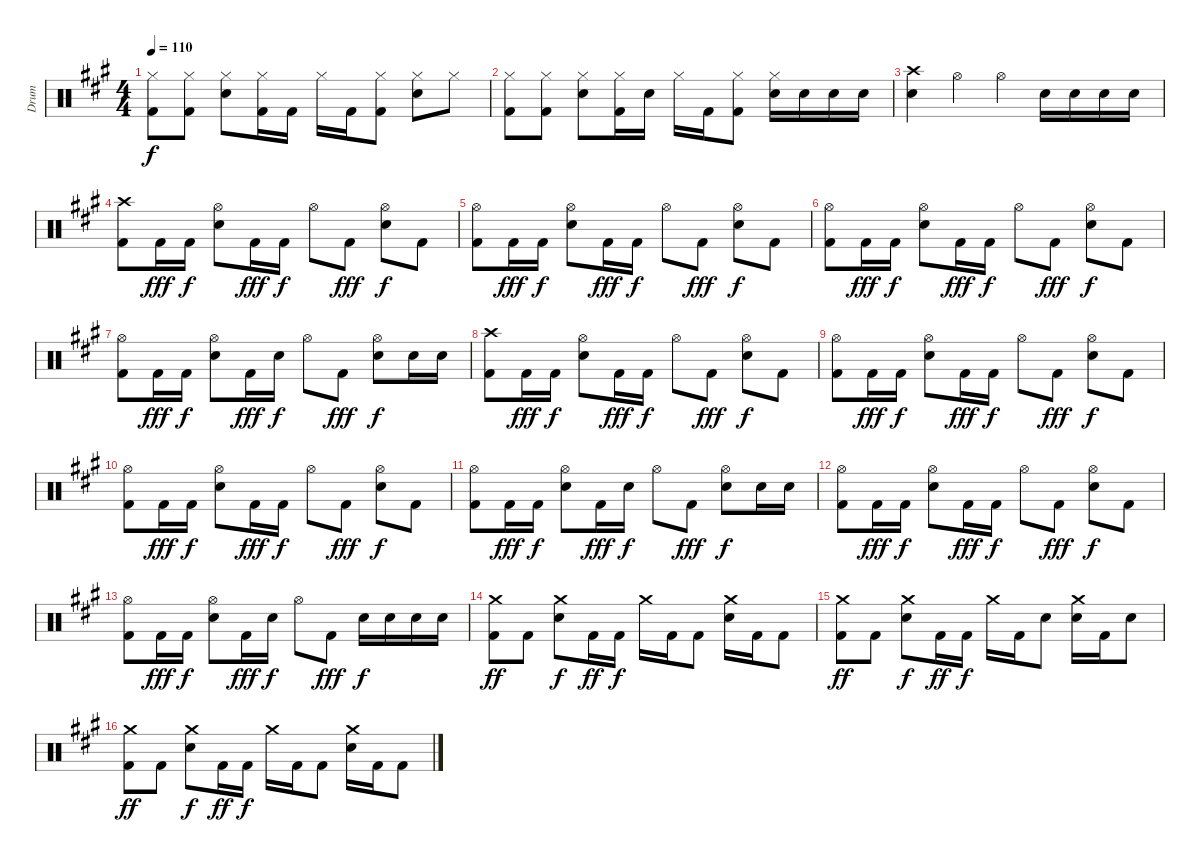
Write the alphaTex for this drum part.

\track ("Drum" "Drum") {instrument percussion}
\staff {score}
\articulation defaults
\ts (4 4)
\tempo 110
\clef neutral
\ks a
("Hi-Hat (closed)" "Kick (hit) 2").8{dy f} ("Hi-Hat (closed)" "Kick (hit) 2").8 ("Hi-Hat (closed)" "Electric Snare (hit)").8 ("Hi-Hat (closed)" "Kick (hit) 2").16 "Kick (hit) 2".16 "Hi-Hat (closed)".16 "Kick (hit) 2".16 ("Hi-Hat (closed)" "Kick (hit) 2").8 ("Hi-Hat (closed)" "Electric Snare (hit)").8 "Hi-Hat (closed)".8 |
("Hi-Hat (closed)" "Kick (hit) 2").8 ("Hi-Hat (closed)" "Kick (hit) 2").8 ("Hi-Hat (closed)" "Electric Snare (hit)").8 ("Hi-Hat (closed)" "Kick (hit) 2").16 "Electric Snare (hit)".16 "Hi-Hat (closed)".16 "Kick (hit) 2".16 ("Hi-Hat (closed)" "Kick (hit) 2").8 ("Hi-Hat (closed)" "Electric Snare (hit)").16 "Electric Snare (hit)".16 "Electric Snare (hit)".16 "Electric Snare (hit)".16 |
("Crash high (hit)" "Electric Snare (hit)").4 "Hi-Hat (open)".4 "Hi-Hat (open)".4 "Electric Snare (hit)".16 "Electric Snare (hit)".16 "Electric Snare (hit)".16 "Electric Snare (hit)".16 |
("Crash high (hit)" "Kick (hit) 2").8 "Kick (hit) 2".16{dy fff} "Kick (hit) 2".16{dy f} ("Hi-Hat (open)" "Electric Snare (hit)").8 "Kick (hit) 2".16{dy fff} "Kick (hit) 2".16{dy f} "Hi-Hat (open)".8 "Kick (hit) 2".8{dy fff} ("Hi-Hat (open)" "Electric Snare (hit)").8{dy f} "Kick (hit) 2".8 |
("Hi-Hat (open)" "Kick (hit) 2").8 "Kick (hit) 2".16{dy fff} "Kick (hit) 2".16{dy f} ("Hi-Hat (open)" "Electric Snare (hit)").8 "Kick (hit) 2".16{dy fff} "Kick (hit) 2".16{dy f} "Hi-Hat (open)".8 "Kick (hit) 2".8{dy fff} ("Hi-Hat (open)" "Electric Snare (hit)").8{dy f} "Kick (hit) 2".8 |
("Hi-Hat (open)" "Kick (hit) 2").8 "Kick (hit) 2".16{dy fff} "Kick (hit) 2".16{dy f} ("Hi-Hat (open)" "Electric Snare (hit)").8 "Kick (hit) 2".16{dy fff} "Kick (hit) 2".16{dy f} "Hi-Hat (open)".8 "Kick (hit) 2".8{dy fff} ("Hi-Hat (open)" "Electric Snare (hit)").8{dy f} "Kick (hit) 2".8 |
("Hi-Hat (open)" "Kick (hit) 2").8 "Kick (hit) 2".16{dy fff} "Kick (hit) 2".16{dy f} ("Hi-Hat (open)" "Electric Snare (hit)").8 "Kick (hit) 2".16{dy fff} "Electric Snare (hit)".16{dy f} "Hi-Hat (open)".8 "Kick (hit) 2".8{dy fff} ("Hi-Hat (open)" "Electric Snare (hit)").8{dy f} "Electric Snare (hit)".16 "Electric Snare (hit)".16 |
("Crash high (hit)" "Kick (hit) 2").8 "Kick (hit) 2".16{dy fff} "Kick (hit) 2".16{dy f} ("Hi-Hat (open)" "Electric Snare (hit)").8 "Kick (hit) 2".16{dy fff} "Kick (hit) 2".16{dy f} "Hi-Hat (open)".8 "Kick (hit) 2".8{dy fff} ("Hi-Hat (open)" "Electric Snare (hit)").8{dy f} "Kick (hit) 2".8 |
("Hi-Hat (open)" "Kick (hit) 2").8 "Kick (hit) 2".16{dy fff} "Kick (hit) 2".16{dy f} ("Hi-Hat (open)" "Electric Snare (hit)").8 "Kick (hit) 2".16{dy fff} "Kick (hit) 2".16{dy f} "Hi-Hat (open)".8 "Kick (hit) 2".8{dy fff} ("Hi-Hat (open)" "Electric Snare (hit)").8{dy f} "Kick (hit) 2".8 |
("Hi-Hat (open)" "Kick (hit) 2").8 "Kick (hit) 2".16{dy fff} "Kick (hit) 2".16{dy f} ("Hi-Hat (open)" "Electric Snare (hit)").8 "Kick (hit) 2".16{dy fff} "Kick (hit) 2".16{dy f} "Hi-Hat (open)".8 "Kick (hit) 2".8{dy fff} ("Hi-Hat (open)" "Electric Snare (hit)").8{dy f} "Kick (hit) 2".8 |
("Hi-Hat (open)" "Kick (hit) 2").8 "Kick (hit) 2".16{dy fff} "Kick (hit) 2".16{dy f} ("Hi-Hat (open)" "Electric Snare (hit)").8 "Kick (hit) 2".16{dy fff} "Electric Snare (hit)".16{dy f} "Hi-Hat (open)".8 "Kick (hit) 2".8{dy fff} ("Hi-Hat (open)" "Electric Snare (hit)").8{dy f} "Electric Snare (hit)".16 "Electric Snare (hit)".16 |
("Hi-Hat (open)" "Kick (hit) 2").8 "Kick (hit) 2".16{dy fff} "Kick (hit) 2".16{dy f} ("Hi-Hat (open)" "Electric Snare (hit)").8 "Kick (hit) 2".16{dy fff} "Kick (hit) 2".16{dy f} "Hi-Hat (open)".8 "Kick (hit) 2".8{dy fff} ("Hi-Hat (open)" "Electric Snare (hit)").8{dy f} "Kick (hit) 2".8 |
("Hi-Hat (open)" "Kick (hit) 2").8 "Kick (hit) 2".16{dy fff} "Kick (hit) 2".16{dy f} ("Hi-Hat (open)" "Electric Snare (hit)").8 "Kick (hit) 2".16{dy fff} "Electric Snare (hit)".16{dy f} "Hi-Hat (open)".8 "Kick (hit) 2".8{dy fff} "Electric Snare (hit)".16{dy f} "Electric Snare (hit)".16 "Electric Snare (hit)".16 "Electric Snare (hit)".16 |
("Crash medium (hit)" "Kick (hit) 2").8{dy ff} "Kick (hit) 2".8 ("Crash medium (hit)" "Electric Snare (hit)").8{dy f} "Kick (hit) 2".16{dy ff} "Kick (hit) 2".16{dy f} "Crash medium (hit)".16 "Kick (hit) 2".16 "Kick (hit) 2".8 ("Crash medium (hit)" "Electric Snare (hit)").16 "Kick (hit) 2".16 "Kick (hit) 2".8 |
("Crash medium (hit)" "Kick (hit) 2").8{dy ff} "Kick (hit) 2".8 ("Crash medium (hit)" "Electric Snare (hit)").8{dy f} "Kick (hit) 2".16{dy ff} "Kick (hit) 2".16{dy f} "Crash medium (hit)".16 "Kick (hit) 2".16 "Electric Snare (hit)".8 ("Crash medium (hit)" "Electric Snare (hit)").16 "Kick (hit) 2".16 "Electric Snare (hit)".8 |
("Crash medium (hit)" "Kick (hit) 2").8{dy ff} "Kick (hit) 2".8 ("Crash medium (hit)" "Electric Snare (hit)").8{dy f} "Kick (hit) 2".16{dy ff} "Kick (hit) 2".16{dy f} "Crash medium (hit)".16 "Kick (hit) 2".16 "Kick (hit) 2".8 ("Crash medium (hit)" "Electric Snare (hit)").16 "Kick (hit) 2".16 "Kick (hit) 2".8
